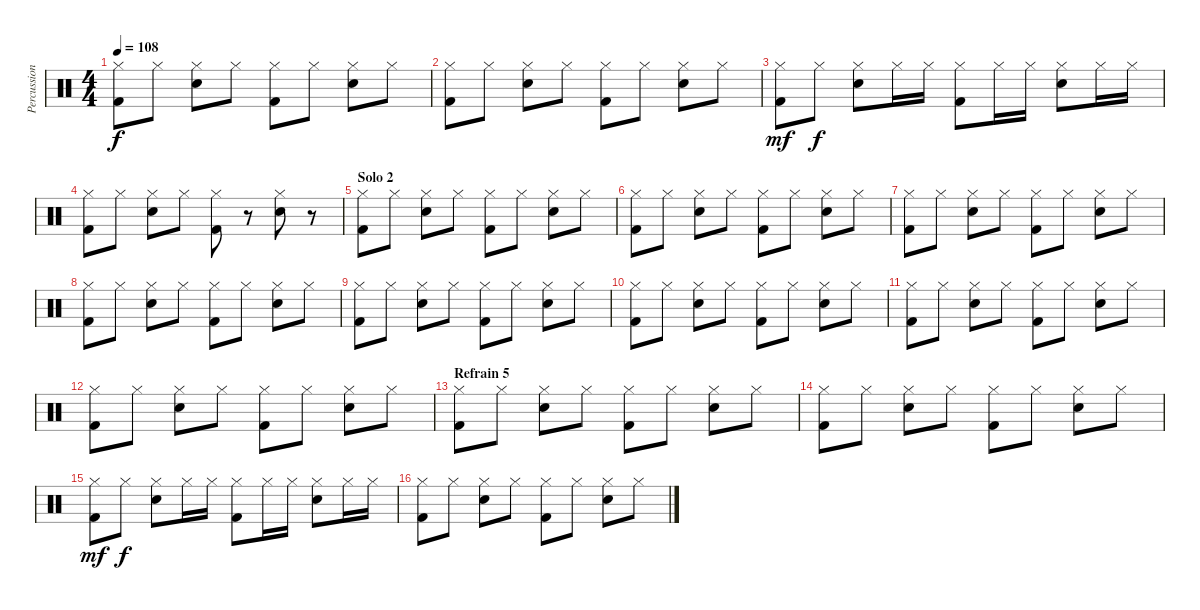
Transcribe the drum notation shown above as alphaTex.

\track ("Percussions" "Percussion") {instrument percussion}
\staff {score}
\articulation defaults
\ts (4 4)
\tempo 108
\clef neutral
\ks c
("Hi-Hat (closed)" "Kick (hit) 2").8{dy f} "Hi-Hat (closed)".8 ("Hi-Hat (closed)" "Electric Snare (hit)").8 "Hi-Hat (closed)".8 ("Hi-Hat (closed)" "Kick (hit) 2").8 "Hi-Hat (closed)".8 ("Hi-Hat (closed)" "Electric Snare (hit)").8 "Hi-Hat (closed)".8 |
("Hi-Hat (closed)" "Kick (hit) 2").8 "Hi-Hat (closed)".8 ("Hi-Hat (closed)" "Electric Snare (hit)").8 "Hi-Hat (closed)".8 ("Hi-Hat (closed)" "Kick (hit) 2").8 "Hi-Hat (closed)".8 ("Hi-Hat (closed)" "Electric Snare (hit)").8 "Hi-Hat (closed)".8 |
("Hi-Hat (closed)" "Kick (hit) 2").8{dy mf} "Hi-Hat (closed)".8{dy f} ("Hi-Hat (closed)" "Electric Snare (hit)").8 "Hi-Hat (closed)".16 "Hi-Hat (closed)".16 ("Hi-Hat (closed)" "Kick (hit) 2").8 "Hi-Hat (closed)".16 "Hi-Hat (closed)".16 ("Hi-Hat (closed)" "Electric Snare (hit)").8 "Hi-Hat (closed)".16 "Hi-Hat (closed)".16 |
("Hi-Hat (closed)" "Kick (hit) 2").8 "Hi-Hat (closed)".8 ("Hi-Hat (closed)" "Electric Snare (hit)").8 "Hi-Hat (closed)".8 ("Hi-Hat (closed)" "Kick (hit) 2").8 r.8 ("Hi-Hat (closed)" "Electric Snare (hit)").8 r.8 |
\section ("" "Solo 2")
("Hi-Hat (closed)" "Kick (hit) 2").8 "Hi-Hat (closed)".8 ("Hi-Hat (closed)" "Electric Snare (hit)").8 "Hi-Hat (closed)".8 ("Hi-Hat (closed)" "Kick (hit) 2").8 "Hi-Hat (closed)".8 ("Hi-Hat (closed)" "Electric Snare (hit)").8 "Hi-Hat (closed)".8 |
("Hi-Hat (closed)" "Kick (hit) 2").8 "Hi-Hat (closed)".8 ("Hi-Hat (closed)" "Electric Snare (hit)").8 "Hi-Hat (closed)".8 ("Hi-Hat (closed)" "Kick (hit) 2").8 "Hi-Hat (closed)".8 ("Hi-Hat (closed)" "Electric Snare (hit)").8 "Hi-Hat (closed)".8 |
("Hi-Hat (closed)" "Kick (hit) 2").8 "Hi-Hat (closed)".8 ("Hi-Hat (closed)" "Electric Snare (hit)").8 "Hi-Hat (closed)".8 ("Hi-Hat (closed)" "Kick (hit) 2").8 "Hi-Hat (closed)".8 ("Hi-Hat (closed)" "Electric Snare (hit)").8 "Hi-Hat (closed)".8 |
("Hi-Hat (closed)" "Kick (hit) 2").8 "Hi-Hat (closed)".8 ("Hi-Hat (closed)" "Electric Snare (hit)").8 "Hi-Hat (closed)".8 ("Hi-Hat (closed)" "Kick (hit) 2").8 "Hi-Hat (closed)".8 ("Hi-Hat (closed)" "Electric Snare (hit)").8 "Hi-Hat (closed)".8 |
("Hi-Hat (closed)" "Kick (hit) 2").8 "Hi-Hat (closed)".8 ("Hi-Hat (closed)" "Electric Snare (hit)").8 "Hi-Hat (closed)".8 ("Hi-Hat (closed)" "Kick (hit) 2").8 "Hi-Hat (closed)".8 ("Hi-Hat (closed)" "Electric Snare (hit)").8 "Hi-Hat (closed)".8 |
("Hi-Hat (closed)" "Kick (hit) 2").8 "Hi-Hat (closed)".8 ("Hi-Hat (closed)" "Electric Snare (hit)").8 "Hi-Hat (closed)".8 ("Hi-Hat (closed)" "Kick (hit) 2").8 "Hi-Hat (closed)".8 ("Hi-Hat (closed)" "Electric Snare (hit)").8 "Hi-Hat (closed)".8 |
("Hi-Hat (closed)" "Kick (hit) 2").8 "Hi-Hat (closed)".8 ("Hi-Hat (closed)" "Electric Snare (hit)").8 "Hi-Hat (closed)".8 ("Hi-Hat (closed)" "Kick (hit) 2").8 "Hi-Hat (closed)".8 ("Hi-Hat (closed)" "Electric Snare (hit)").8 "Hi-Hat (closed)".8 |
("Hi-Hat (closed)" "Kick (hit) 2").8 "Hi-Hat (closed)".8 ("Hi-Hat (closed)" "Electric Snare (hit)").8 "Hi-Hat (closed)".8 ("Hi-Hat (closed)" "Kick (hit) 2").8 "Hi-Hat (closed)".8 ("Hi-Hat (closed)" "Electric Snare (hit)").8 "Hi-Hat (closed)".8 |
\section ("" "Refrain 5")
("Hi-Hat (closed)" "Kick (hit) 2").8 "Hi-Hat (closed)".8 ("Hi-Hat (closed)" "Electric Snare (hit)").8 "Hi-Hat (closed)".8 ("Hi-Hat (closed)" "Kick (hit) 2").8 "Hi-Hat (closed)".8 ("Hi-Hat (closed)" "Electric Snare (hit)").8 "Hi-Hat (closed)".8 |
("Hi-Hat (closed)" "Kick (hit) 2").8 "Hi-Hat (closed)".8 ("Hi-Hat (closed)" "Electric Snare (hit)").8 "Hi-Hat (closed)".8 ("Hi-Hat (closed)" "Kick (hit) 2").8 "Hi-Hat (closed)".8 ("Hi-Hat (closed)" "Electric Snare (hit)").8 "Hi-Hat (closed)".8 |
("Hi-Hat (closed)" "Kick (hit) 2").8{dy mf} "Hi-Hat (closed)".8{dy f} ("Hi-Hat (closed)" "Electric Snare (hit)").8 "Hi-Hat (closed)".16 "Hi-Hat (closed)".16 ("Hi-Hat (closed)" "Kick (hit) 2").8 "Hi-Hat (closed)".16 "Hi-Hat (closed)".16 ("Hi-Hat (closed)" "Electric Snare (hit)").8 "Hi-Hat (closed)".16 "Hi-Hat (closed)".16 |
("Hi-Hat (closed)" "Kick (hit) 2").8 "Hi-Hat (closed)".8 ("Hi-Hat (closed)" "Electric Snare (hit)").8 "Hi-Hat (closed)".8 ("Hi-Hat (closed)" "Kick (hit) 2").8 "Hi-Hat (closed)".8 ("Hi-Hat (closed)" "Electric Snare (hit)").8 "Hi-Hat (closed)".8
